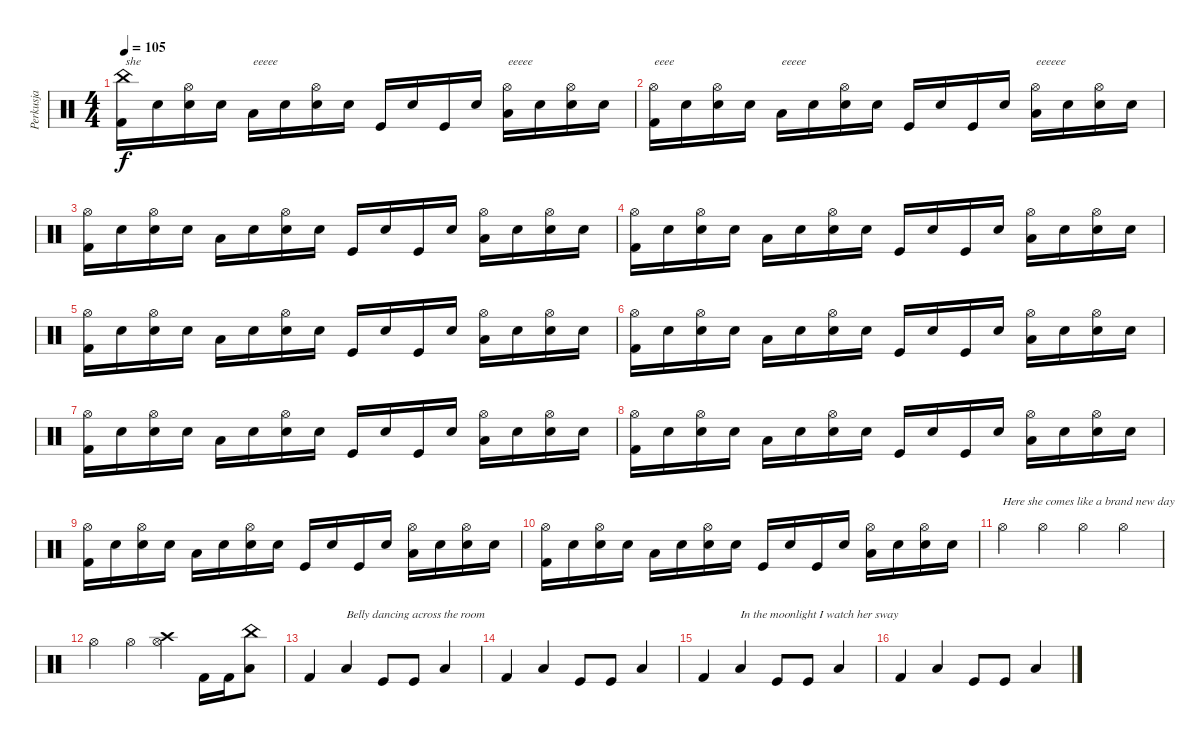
\track ("Perkusja" "Perkusja") {instrument percussion}
\staff {score}
\articulation defaults
\ts (4 4)
\tempo 105
\clef neutral
\ks c
("China (hit)" "Kick (hit) 2").16{txt "she" dy f} "Snare (hit)".16 ("Hi-Hat (open)" "Snare (hit)").16 "Snare (hit)".16 "Low Tom (hit)".16{txt "eeeee"} "Snare (hit)".16 ("Hi-Hat (open)" "Snare (hit)").16 "Snare (hit)".16 "Kick (hit)".16 "Snare (hit)".16 "Kick (hit)".16 "Snare (hit)".16 ("Hi-Hat (open)" "Low Tom (hit)").16{txt "eeeee"} "Snare (hit)".16 ("Hi-Hat (open)" "Snare (hit)").16 "Snare (hit)".16 |
("Hi-Hat (open)" "Kick (hit) 2").16{txt "eeee"} "Snare (hit)".16 ("Hi-Hat (open)" "Snare (hit)").16 "Snare (hit)".16 "Low Tom (hit)".16{txt "eeeee"} "Snare (hit)".16 ("Hi-Hat (open)" "Snare (hit)").16 "Snare (hit)".16 "Kick (hit)".16 "Snare (hit)".16 "Kick (hit)".16 "Snare (hit)".16 ("Hi-Hat (open)" "Low Tom (hit)").16{txt "eeeeee"} "Snare (hit)".16 ("Hi-Hat (open)" "Snare (hit)").16 "Snare (hit)".16 |
("Hi-Hat (open)" "Kick (hit) 2").16 "Snare (hit)".16 ("Hi-Hat (open)" "Snare (hit)").16 "Snare (hit)".16 "Low Tom (hit)".16 "Snare (hit)".16 ("Hi-Hat (open)" "Snare (hit)").16 "Snare (hit)".16 "Kick (hit)".16 "Snare (hit)".16 "Kick (hit)".16 "Snare (hit)".16 ("Hi-Hat (open)" "Low Tom (hit)").16 "Snare (hit)".16 ("Hi-Hat (open)" "Snare (hit)").16 "Snare (hit)".16 |
("Hi-Hat (open)" "Kick (hit) 2").16 "Snare (hit)".16 ("Hi-Hat (open)" "Snare (hit)").16 "Snare (hit)".16 "Low Tom (hit)".16 "Snare (hit)".16 ("Hi-Hat (open)" "Snare (hit)").16 "Snare (hit)".16 "Kick (hit)".16 "Snare (hit)".16 "Kick (hit)".16 "Snare (hit)".16 ("Hi-Hat (open)" "Low Tom (hit)").16 "Snare (hit)".16 ("Hi-Hat (open)" "Snare (hit)").16 "Snare (hit)".16 |
("Hi-Hat (open)" "Kick (hit) 2").16 "Snare (hit)".16 ("Hi-Hat (open)" "Snare (hit)").16 "Snare (hit)".16 "Low Tom (hit)".16 "Snare (hit)".16 ("Hi-Hat (open)" "Snare (hit)").16 "Snare (hit)".16 "Kick (hit)".16 "Snare (hit)".16 "Kick (hit)".16 "Snare (hit)".16 ("Hi-Hat (open)" "Low Tom (hit)").16 "Snare (hit)".16 ("Hi-Hat (open)" "Snare (hit)").16 "Snare (hit)".16 |
("Hi-Hat (open)" "Kick (hit) 2").16 "Snare (hit)".16 ("Hi-Hat (open)" "Snare (hit)").16 "Snare (hit)".16 "Low Tom (hit)".16 "Snare (hit)".16 ("Hi-Hat (open)" "Snare (hit)").16 "Snare (hit)".16 "Kick (hit)".16 "Snare (hit)".16 "Kick (hit)".16 "Snare (hit)".16 ("Hi-Hat (open)" "Low Tom (hit)").16 "Snare (hit)".16 ("Hi-Hat (open)" "Snare (hit)").16 "Snare (hit)".16 |
("Hi-Hat (open)" "Kick (hit) 2").16 "Snare (hit)".16 ("Hi-Hat (open)" "Snare (hit)").16 "Snare (hit)".16 "Low Tom (hit)".16 "Snare (hit)".16 ("Hi-Hat (open)" "Snare (hit)").16 "Snare (hit)".16 "Kick (hit)".16 "Snare (hit)".16 "Kick (hit)".16 "Snare (hit)".16 ("Hi-Hat (open)" "Low Tom (hit)").16 "Snare (hit)".16 ("Hi-Hat (open)" "Snare (hit)").16 "Snare (hit)".16 |
("Hi-Hat (open)" "Kick (hit) 2").16 "Snare (hit)".16 ("Hi-Hat (open)" "Snare (hit)").16 "Snare (hit)".16 "Low Tom (hit)".16 "Snare (hit)".16 ("Hi-Hat (open)" "Snare (hit)").16 "Snare (hit)".16 "Kick (hit)".16 "Snare (hit)".16 "Kick (hit)".16 "Snare (hit)".16 ("Hi-Hat (open)" "Low Tom (hit)").16 "Snare (hit)".16 ("Hi-Hat (open)" "Snare (hit)").16 "Snare (hit)".16 |
("Hi-Hat (open)" "Kick (hit) 2").16 "Snare (hit)".16 ("Hi-Hat (open)" "Snare (hit)").16 "Snare (hit)".16 "Low Tom (hit)".16 "Snare (hit)".16 ("Hi-Hat (open)" "Snare (hit)").16 "Snare (hit)".16 "Kick (hit)".16 "Snare (hit)".16 "Kick (hit)".16 "Snare (hit)".16 ("Hi-Hat (open)" "Low Tom (hit)").16 "Snare (hit)".16 ("Hi-Hat (open)" "Snare (hit)").16 "Snare (hit)".16 |
("Hi-Hat (open)" "Kick (hit) 2").16 "Snare (hit)".16 ("Hi-Hat (open)" "Snare (hit)").16 "Snare (hit)".16 "Low Tom (hit)".16 "Snare (hit)".16 ("Hi-Hat (open)" "Snare (hit)").16 "Snare (hit)".16 "Kick (hit)".16 "Snare (hit)".16 "Kick (hit)".16 "Snare (hit)".16 ("Hi-Hat (open)" "Low Tom (hit)").16 "Snare (hit)".16 ("Hi-Hat (open)" "Snare (hit)").16 "Snare (hit)".16 |
"Hi-Hat (open)".4{txt "Here she comes like a brand new day"} "Hi-Hat (open)".4 "Hi-Hat (open)".4 "Hi-Hat (open)".4 |
"Hi-Hat (open)".4 "Hi-Hat (open)".4 ("Crash high (hit)" "Hi-Hat (open)").4 "Kick (hit) 2".16 "Kick (hit) 2".16 ("China (hit)" "Low Tom (hit)").8 |
"Kick (hit) 2".4 "Low Tom (hit)".4{txt "Belly dancing across the room "} "Kick (hit)".8 "Kick (hit)".8 "Low Tom (hit)".4 |
"Kick (hit) 2".4 "Low Tom (hit)".4 "Kick (hit)".8 "Kick (hit)".8 "Low Tom (hit)".4 |
"Kick (hit) 2".4 "Low Tom (hit)".4{txt "In the moonlight I watch her sway "} "Kick (hit)".8 "Kick (hit)".8 "Low Tom (hit)".4 |
"Kick (hit) 2".4 "Low Tom (hit)".4 "Kick (hit)".8 "Kick (hit)".8 "Low Tom (hit)".4
